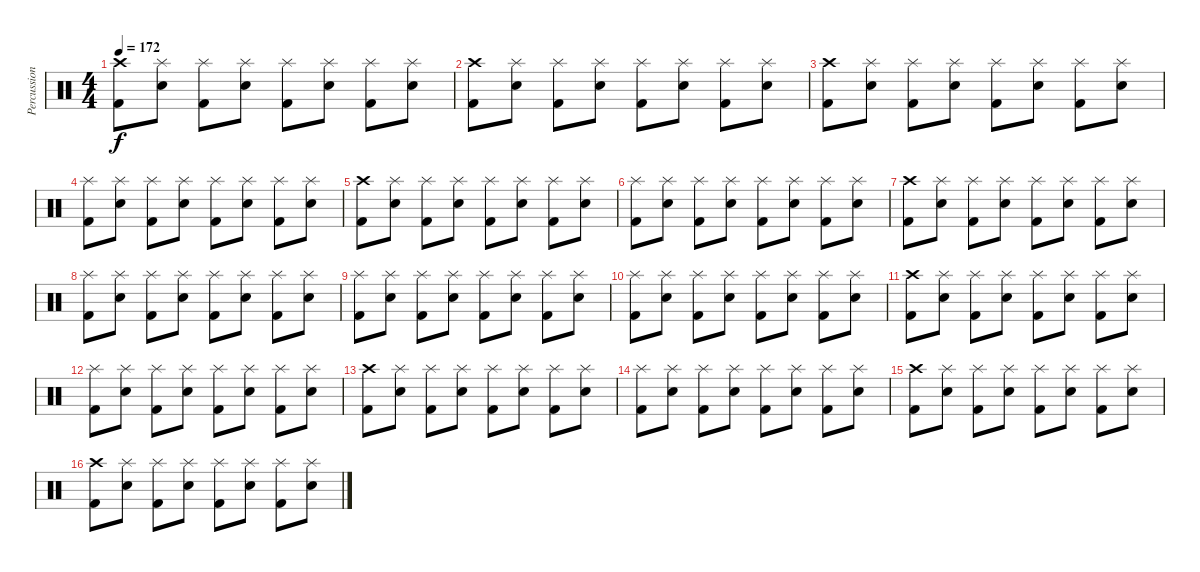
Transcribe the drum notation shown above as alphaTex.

\track ("Percussions" "Percussion") {instrument percussion}
\staff {score}
\articulation defaults
\ts (4 4)
\tempo 172
\clef neutral
\ks c
("Crash high (hit)" "Kick (hit) 2").8{dy f} ("Splash (hit)" "Electric Snare (hit)").8 ("Splash (hit)" "Kick (hit) 2").8 ("Splash (hit)" "Electric Snare (hit)").8 ("Splash (hit)" "Kick (hit) 2").8 ("Splash (hit)" "Electric Snare (hit)").8 ("Splash (hit)" "Kick (hit) 2").8 ("Splash (hit)" "Electric Snare (hit)").8 |
("Crash high (hit)" "Kick (hit) 2").8 ("Splash (hit)" "Electric Snare (hit)").8 ("Splash (hit)" "Kick (hit) 2").8 ("Splash (hit)" "Electric Snare (hit)").8 ("Splash (hit)" "Kick (hit) 2").8 ("Splash (hit)" "Electric Snare (hit)").8 ("Splash (hit)" "Kick (hit) 2").8 ("Splash (hit)" "Electric Snare (hit)").8 |
("Crash high (hit)" "Kick (hit) 2").8 ("Splash (hit)" "Electric Snare (hit)").8 ("Splash (hit)" "Kick (hit) 2").8 ("Splash (hit)" "Electric Snare (hit)").8 ("Splash (hit)" "Kick (hit) 2").8 ("Splash (hit)" "Electric Snare (hit)").8 ("Splash (hit)" "Kick (hit) 2").8 ("Splash (hit)" "Electric Snare (hit)").8 |
("Splash (hit)" "Kick (hit) 2").8 ("Splash (hit)" "Electric Snare (hit)").8 ("Splash (hit)" "Kick (hit) 2").8 ("Splash (hit)" "Electric Snare (hit)").8 ("Splash (hit)" "Kick (hit) 2").8 ("Splash (hit)" "Electric Snare (hit)").8 ("Splash (hit)" "Kick (hit) 2").8 ("Splash (hit)" "Electric Snare (hit)").8 |
("Crash high (hit)" "Kick (hit) 2").8 ("Splash (hit)" "Electric Snare (hit)").8 ("Splash (hit)" "Kick (hit) 2").8 ("Splash (hit)" "Electric Snare (hit)").8 ("Splash (hit)" "Kick (hit) 2").8 ("Splash (hit)" "Electric Snare (hit)").8 ("Splash (hit)" "Kick (hit) 2").8 ("Splash (hit)" "Electric Snare (hit)").8 |
("Splash (hit)" "Kick (hit) 2").8 ("Splash (hit)" "Electric Snare (hit)").8 ("Splash (hit)" "Kick (hit) 2").8 ("Splash (hit)" "Electric Snare (hit)").8 ("Splash (hit)" "Kick (hit) 2").8 ("Splash (hit)" "Electric Snare (hit)").8 ("Splash (hit)" "Kick (hit) 2").8 ("Splash (hit)" "Electric Snare (hit)").8 |
("Crash high (hit)" "Kick (hit) 2").8 ("Splash (hit)" "Electric Snare (hit)").8 ("Splash (hit)" "Kick (hit) 2").8 ("Splash (hit)" "Electric Snare (hit)").8 ("Splash (hit)" "Kick (hit) 2").8 ("Splash (hit)" "Electric Snare (hit)").8 ("Splash (hit)" "Kick (hit) 2").8 ("Splash (hit)" "Electric Snare (hit)").8 |
("Splash (hit)" "Kick (hit) 2").8 ("Splash (hit)" "Electric Snare (hit)").8 ("Splash (hit)" "Kick (hit) 2").8 ("Splash (hit)" "Electric Snare (hit)").8 ("Splash (hit)" "Kick (hit) 2").8 ("Splash (hit)" "Electric Snare (hit)").8 ("Splash (hit)" "Kick (hit) 2").8 ("Splash (hit)" "Electric Snare (hit)").8 |
("Splash (hit)" "Kick (hit) 2").8 ("Splash (hit)" "Electric Snare (hit)").8 ("Splash (hit)" "Kick (hit) 2").8 ("Splash (hit)" "Electric Snare (hit)").8 ("Splash (hit)" "Kick (hit) 2").8 ("Splash (hit)" "Electric Snare (hit)").8 ("Splash (hit)" "Kick (hit) 2").8 ("Splash (hit)" "Electric Snare (hit)").8 |
("Splash (hit)" "Kick (hit) 2").8 ("Splash (hit)" "Electric Snare (hit)").8 ("Splash (hit)" "Kick (hit) 2").8 ("Splash (hit)" "Electric Snare (hit)").8 ("Splash (hit)" "Kick (hit) 2").8 ("Splash (hit)" "Electric Snare (hit)").8 ("Splash (hit)" "Kick (hit) 2").8 ("Splash (hit)" "Electric Snare (hit)").8 |
("Crash high (hit)" "Kick (hit) 2").8 ("Splash (hit)" "Electric Snare (hit)").8 ("Splash (hit)" "Kick (hit) 2").8 ("Splash (hit)" "Electric Snare (hit)").8 ("Splash (hit)" "Kick (hit) 2").8 ("Splash (hit)" "Electric Snare (hit)").8 ("Splash (hit)" "Kick (hit) 2").8 ("Splash (hit)" "Electric Snare (hit)").8 |
("Splash (hit)" "Kick (hit) 2").8 ("Splash (hit)" "Electric Snare (hit)").8 ("Splash (hit)" "Kick (hit) 2").8 ("Splash (hit)" "Electric Snare (hit)").8 ("Splash (hit)" "Kick (hit) 2").8 ("Splash (hit)" "Electric Snare (hit)").8 ("Splash (hit)" "Kick (hit) 2").8 ("Splash (hit)" "Electric Snare (hit)").8 |
("Crash high (hit)" "Kick (hit) 2").8 ("Splash (hit)" "Electric Snare (hit)").8 ("Splash (hit)" "Kick (hit) 2").8 ("Splash (hit)" "Electric Snare (hit)").8 ("Splash (hit)" "Kick (hit) 2").8 ("Splash (hit)" "Electric Snare (hit)").8 ("Splash (hit)" "Kick (hit) 2").8 ("Splash (hit)" "Electric Snare (hit)").8 |
("Splash (hit)" "Kick (hit) 2").8 ("Splash (hit)" "Electric Snare (hit)").8 ("Splash (hit)" "Kick (hit) 2").8 ("Splash (hit)" "Electric Snare (hit)").8 ("Splash (hit)" "Kick (hit) 2").8 ("Splash (hit)" "Electric Snare (hit)").8 ("Splash (hit)" "Kick (hit) 2").8 ("Splash (hit)" "Electric Snare (hit)").8 |
("Crash high (hit)" "Kick (hit) 2").8 ("Splash (hit)" "Electric Snare (hit)").8 ("Splash (hit)" "Kick (hit) 2").8 ("Splash (hit)" "Electric Snare (hit)").8 ("Splash (hit)" "Kick (hit) 2").8 ("Splash (hit)" "Electric Snare (hit)").8 ("Splash (hit)" "Kick (hit) 2").8 ("Splash (hit)" "Electric Snare (hit)").8 |
("Crash high (hit)" "Kick (hit) 2").8 ("Splash (hit)" "Electric Snare (hit)").8 ("Splash (hit)" "Kick (hit) 2").8 ("Splash (hit)" "Electric Snare (hit)").8 ("Splash (hit)" "Kick (hit) 2").8 ("Splash (hit)" "Electric Snare (hit)").8 ("Splash (hit)" "Kick (hit) 2").8 ("Splash (hit)" "Electric Snare (hit)").8
